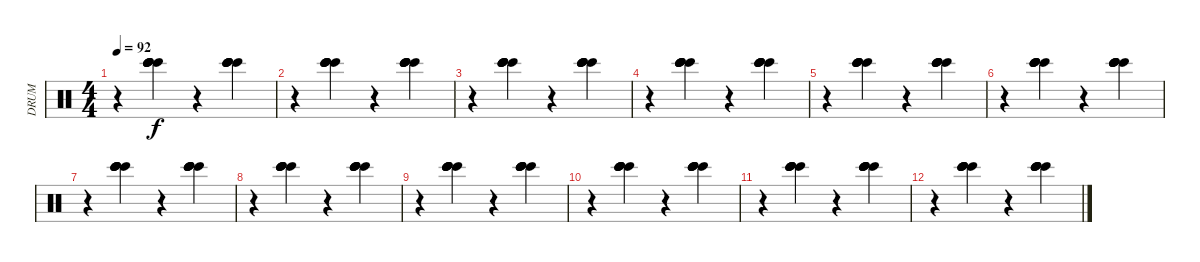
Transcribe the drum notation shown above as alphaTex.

\track ("DRUM" "DRUM") {instrument percussion}
\staff {score}
\articulation defaults
\ts (4 4)
\tempo 92
\clef neutral
\ks c
r.4{dy f volume 16} ("Bongo High (hit)" "Bongo High (hit)" "Bongo High (hit)" "Bongo High (hit)" "Bongo High (hit)").4{volume 16} r.4{volume 16} ("Bongo High (hit)" "Bongo High (hit)" "Bongo High (hit)" "Bongo High (hit)" "Bongo High (hit)").4{volume 16} |
r.4{volume 16} ("Bongo High (hit)" "Bongo High (hit)" "Bongo High (hit)" "Bongo High (hit)" "Bongo High (hit)").4{volume 16} r.4{volume 16} ("Bongo High (hit)" "Bongo High (hit)" "Bongo High (hit)" "Bongo High (hit)" "Bongo High (hit)").4{volume 16} |
r.4{volume 16} ("Bongo High (hit)" "Bongo High (hit)" "Bongo High (hit)" "Bongo High (hit)" "Bongo High (hit)").4{volume 16} r.4{volume 16} ("Bongo High (hit)" "Bongo High (hit)" "Bongo High (hit)" "Bongo High (hit)" "Bongo High (hit)").4{volume 16} |
r.4{volume 16} ("Bongo High (hit)" "Bongo High (hit)" "Bongo High (hit)" "Bongo High (hit)" "Bongo High (hit)").4{volume 16} r.4{volume 16} ("Bongo High (hit)" "Bongo High (hit)" "Bongo High (hit)" "Bongo High (hit)" "Bongo High (hit)").4{volume 16} |
r.4{volume 16} ("Bongo High (hit)" "Bongo High (hit)" "Bongo High (hit)" "Bongo High (hit)" "Bongo High (hit)").4{volume 16} r.4{volume 16} ("Bongo High (hit)" "Bongo High (hit)" "Bongo High (hit)" "Bongo High (hit)" "Bongo High (hit)").4{volume 16} |
r.4{volume 16} ("Bongo High (hit)" "Bongo High (hit)" "Bongo High (hit)" "Bongo High (hit)" "Bongo High (hit)").4{volume 16} r.4{volume 16} ("Bongo High (hit)" "Bongo High (hit)" "Bongo High (hit)" "Bongo High (hit)" "Bongo High (hit)").4{volume 16} |
r.4{volume 16} ("Bongo High (hit)" "Bongo High (hit)" "Bongo High (hit)" "Bongo High (hit)" "Bongo High (hit)").4{volume 16} r.4{volume 16} ("Bongo High (hit)" "Bongo High (hit)" "Bongo High (hit)" "Bongo High (hit)" "Bongo High (hit)").4{volume 16} |
r.4{volume 16} ("Bongo High (hit)" "Bongo High (hit)" "Bongo High (hit)" "Bongo High (hit)" "Bongo High (hit)").4{volume 16} r.4{volume 16} ("Bongo High (hit)" "Bongo High (hit)" "Bongo High (hit)" "Bongo High (hit)" "Bongo High (hit)").4{volume 16} |
r.4{volume 16} ("Bongo High (hit)" "Bongo High (hit)" "Bongo High (hit)" "Bongo High (hit)" "Bongo High (hit)").4{volume 16} r.4{volume 16} ("Bongo High (hit)" "Bongo High (hit)" "Bongo High (hit)" "Bongo High (hit)" "Bongo High (hit)").4{volume 16} |
r.4{volume 16} ("Bongo High (hit)" "Bongo High (hit)" "Bongo High (hit)" "Bongo High (hit)" "Bongo High (hit)").4{volume 16} r.4{volume 16} ("Bongo High (hit)" "Bongo High (hit)" "Bongo High (hit)" "Bongo High (hit)" "Bongo High (hit)").4{volume 16} |
r.4{volume 16} ("Bongo High (hit)" "Bongo High (hit)" "Bongo High (hit)" "Bongo High (hit)" "Bongo High (hit)").4{volume 16} r.4{volume 16} ("Bongo High (hit)" "Bongo High (hit)" "Bongo High (hit)" "Bongo High (hit)" "Bongo High (hit)").4{volume 16} |
r.4{volume 16} ("Bongo High (hit)" "Bongo High (hit)" "Bongo High (hit)" "Bongo High (hit)" "Bongo High (hit)").4{volume 16} r.4{volume 16} ("Bongo High (hit)" "Bongo High (hit)" "Bongo High (hit)" "Bongo High (hit)" "Bongo High (hit)").4{volume 16}
